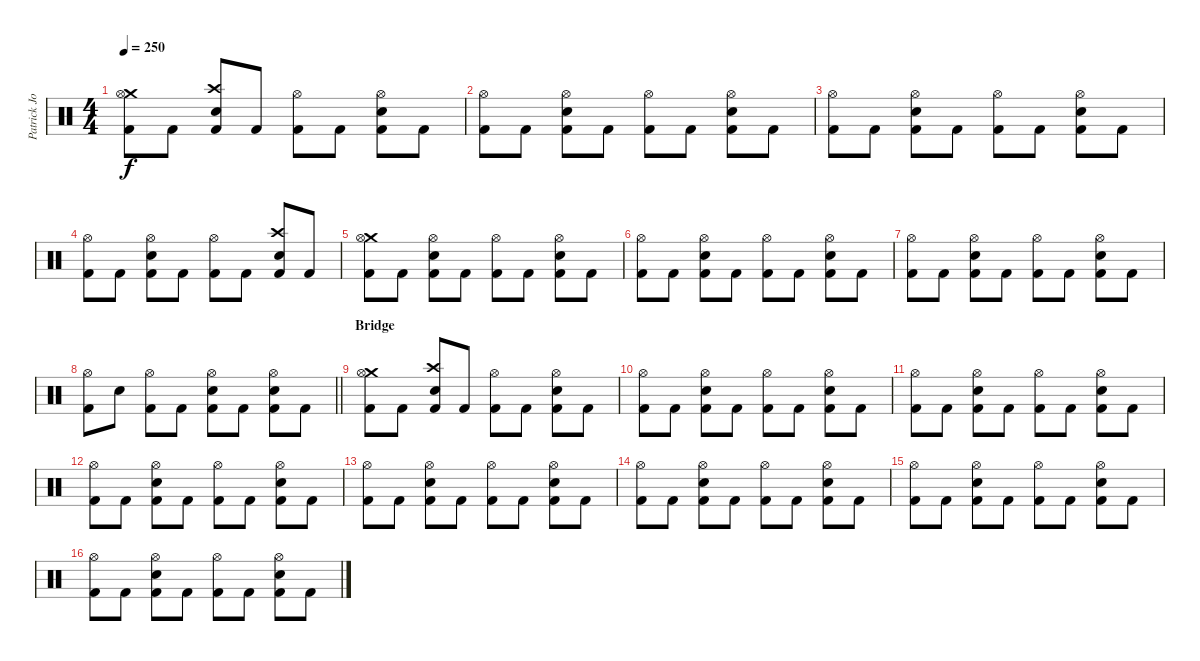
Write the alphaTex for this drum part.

\track ("Patrick Johansson" "Patrick Jo") {instrument percussion}
\staff {score}
\articulation defaults
\ts (4 4)
\tempo 250
\clef neutral
\ks c
("Crash medium (hit)" "Hi-Hat (open)" "Kick (hit) 2").8{dy f} "Kick (hit) 2".8 ("Crash high (hit)" "Snare (hit) 2" "Kick (hit) 2").8 "Kick (hit) 2".8 ("Hi-Hat (open)" "Kick (hit) 2").8 "Kick (hit) 2".8 ("Hi-Hat (open)" "Snare (hit) 2" "Kick (hit) 2").8 "Kick (hit) 2".8 |
("Hi-Hat (open)" "Kick (hit) 2").8 "Kick (hit) 2".8 ("Hi-Hat (open)" "Snare (hit) 2" "Kick (hit) 2").8 "Kick (hit) 2".8 ("Hi-Hat (open)" "Kick (hit) 2").8 "Kick (hit) 2".8 ("Hi-Hat (open)" "Snare (hit) 2" "Kick (hit) 2").8 "Kick (hit) 2".8 |
("Hi-Hat (open)" "Kick (hit) 2").8 "Kick (hit) 2".8 ("Hi-Hat (open)" "Snare (hit) 2" "Kick (hit) 2").8 "Kick (hit) 2".8 ("Hi-Hat (open)" "Kick (hit) 2").8 "Kick (hit) 2".8 ("Hi-Hat (open)" "Snare (hit) 2" "Kick (hit) 2").8 "Kick (hit) 2".8 |
("Hi-Hat (open)" "Kick (hit) 2").8 "Kick (hit) 2".8 ("Hi-Hat (open)" "Snare (hit) 2" "Kick (hit) 2").8 "Kick (hit) 2".8 ("Hi-Hat (open)" "Kick (hit) 2").8 "Kick (hit) 2".8 ("Crash high (hit)" "Snare (hit) 2" "Kick (hit) 2").8 "Kick (hit) 2".8 |
("Crash medium (hit)" "Hi-Hat (open)" "Kick (hit) 2").8 "Kick (hit) 2".8 ("Hi-Hat (open)" "Snare (hit) 2" "Kick (hit) 2").8 "Kick (hit) 2".8 ("Hi-Hat (open)" "Kick (hit) 2").8 "Kick (hit) 2".8 ("Hi-Hat (open)" "Snare (hit) 2" "Kick (hit) 2").8 "Kick (hit) 2".8 |
("Hi-Hat (open)" "Kick (hit) 2").8 "Kick (hit) 2".8 ("Hi-Hat (open)" "Snare (hit) 2" "Kick (hit) 2").8 "Kick (hit) 2".8 ("Hi-Hat (open)" "Kick (hit) 2").8 "Kick (hit) 2".8 ("Hi-Hat (open)" "Snare (hit) 2" "Kick (hit) 2").8 "Kick (hit) 2".8 |
("Hi-Hat (open)" "Kick (hit) 2").8 "Kick (hit) 2".8 ("Hi-Hat (open)" "Snare (hit) 2" "Kick (hit) 2").8 "Kick (hit) 2".8 ("Hi-Hat (open)" "Kick (hit) 2").8 "Kick (hit) 2".8 ("Hi-Hat (open)" "Snare (hit) 2" "Kick (hit) 2").8 "Kick (hit) 2".8 |
\barLineRight lightlight
("Hi-Hat (open)" "Kick (hit) 2").8 "Snare (hit) 2".8 ("Hi-Hat (open)" "Kick (hit) 2").8 "Kick (hit) 2".8 ("Hi-Hat (open)" "Snare (hit) 2" "Kick (hit) 2").8 "Kick (hit) 2".8 ("Hi-Hat (open)" "Snare (hit) 2" "Kick (hit) 2").8 "Kick (hit) 2".8 |
\section ("" "Bridge")
("Crash medium (hit)" "Hi-Hat (open)" "Kick (hit) 2").8 "Kick (hit) 2".8 ("Crash high (hit)" "Snare (hit) 2" "Kick (hit) 2").8 "Kick (hit) 2".8 ("Hi-Hat (open)" "Kick (hit) 2").8 "Kick (hit) 2".8 ("Hi-Hat (open)" "Snare (hit) 2" "Kick (hit) 2").8 "Kick (hit) 2".8 |
("Hi-Hat (open)" "Kick (hit) 2").8 "Kick (hit) 2".8 ("Hi-Hat (open)" "Snare (hit) 2" "Kick (hit) 2").8 "Kick (hit) 2".8 ("Hi-Hat (open)" "Kick (hit) 2").8 "Kick (hit) 2".8 ("Hi-Hat (open)" "Snare (hit) 2" "Kick (hit) 2").8 "Kick (hit) 2".8 |
("Hi-Hat (open)" "Kick (hit) 2").8 "Kick (hit) 2".8 ("Hi-Hat (open)" "Snare (hit) 2" "Kick (hit) 2").8 "Kick (hit) 2".8 ("Hi-Hat (open)" "Kick (hit) 2").8 "Kick (hit) 2".8 ("Hi-Hat (open)" "Snare (hit) 2" "Kick (hit) 2").8 "Kick (hit) 2".8 |
("Hi-Hat (open)" "Kick (hit) 2").8 "Kick (hit) 2".8 ("Hi-Hat (open)" "Snare (hit) 2" "Kick (hit) 2").8 "Kick (hit) 2".8 ("Hi-Hat (open)" "Kick (hit) 2").8 "Kick (hit) 2".8 ("Hi-Hat (open)" "Snare (hit) 2" "Kick (hit) 2").8 "Kick (hit) 2".8 |
("Hi-Hat (open)" "Kick (hit) 2").8 "Kick (hit) 2".8 ("Hi-Hat (open)" "Snare (hit) 2" "Kick (hit) 2").8 "Kick (hit) 2".8 ("Hi-Hat (open)" "Kick (hit) 2").8 "Kick (hit) 2".8 ("Hi-Hat (open)" "Snare (hit) 2" "Kick (hit) 2").8 "Kick (hit) 2".8 |
("Hi-Hat (open)" "Kick (hit) 2").8 "Kick (hit) 2".8 ("Hi-Hat (open)" "Snare (hit) 2" "Kick (hit) 2").8 "Kick (hit) 2".8 ("Hi-Hat (open)" "Kick (hit) 2").8 "Kick (hit) 2".8 ("Hi-Hat (open)" "Snare (hit) 2" "Kick (hit) 2").8 "Kick (hit) 2".8 |
("Hi-Hat (open)" "Kick (hit) 2").8 "Kick (hit) 2".8 ("Hi-Hat (open)" "Snare (hit) 2" "Kick (hit) 2").8 "Kick (hit) 2".8 ("Hi-Hat (open)" "Kick (hit) 2").8 "Kick (hit) 2".8 ("Hi-Hat (open)" "Snare (hit) 2" "Kick (hit) 2").8 "Kick (hit) 2".8 |
("Hi-Hat (open)" "Kick (hit) 2").8 "Kick (hit) 2".8 ("Hi-Hat (open)" "Snare (hit) 2" "Kick (hit) 2").8 "Kick (hit) 2".8 ("Hi-Hat (open)" "Kick (hit) 2").8 "Kick (hit) 2".8 ("Hi-Hat (open)" "Snare (hit) 2" "Kick (hit) 2").8 "Kick (hit) 2".8
